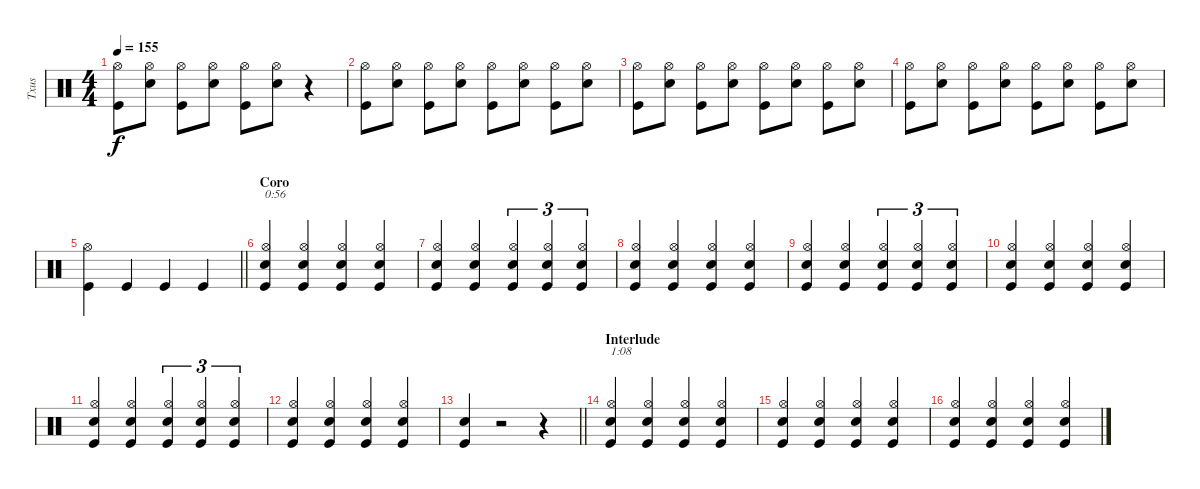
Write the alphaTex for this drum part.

\track ("Txus" "Txus") {instrument percussion}
\staff {score}
\articulation defaults
\ts (4 4)
\tempo 155
\clef neutral
\ks c
("Kick (hit)" "Hi-Hat (open)").8{dy f} ("Snare (hit) 2" "Hi-Hat (open)").8 ("Kick (hit)" "Hi-Hat (open)").8 ("Snare (hit) 2" "Hi-Hat (open)").8 ("Kick (hit)" "Hi-Hat (open)").8 ("Snare (hit) 2" "Hi-Hat (open)").8 r.4 |
("Kick (hit)" "Hi-Hat (open)").8 ("Snare (hit) 2" "Hi-Hat (open)").8 ("Kick (hit)" "Hi-Hat (open)").8 ("Snare (hit) 2" "Hi-Hat (open)").8 ("Kick (hit)" "Hi-Hat (open)").8 ("Snare (hit) 2" "Hi-Hat (open)").8 ("Kick (hit)" "Hi-Hat (open)").8 ("Snare (hit) 2" "Hi-Hat (open)").8 |
("Kick (hit)" "Hi-Hat (open)").8 ("Snare (hit) 2" "Hi-Hat (open)").8 ("Kick (hit)" "Hi-Hat (open)").8 ("Snare (hit) 2" "Hi-Hat (open)").8 ("Kick (hit)" "Hi-Hat (open)").8 ("Snare (hit) 2" "Hi-Hat (open)").8 ("Kick (hit)" "Hi-Hat (open)").8 ("Snare (hit) 2" "Hi-Hat (open)").8 |
("Kick (hit)" "Hi-Hat (open)").8 ("Snare (hit) 2" "Hi-Hat (open)").8 ("Kick (hit)" "Hi-Hat (open)").8 ("Snare (hit) 2" "Hi-Hat (open)").8 ("Kick (hit)" "Hi-Hat (open)").8 ("Snare (hit) 2" "Hi-Hat (open)").8 ("Kick (hit)" "Hi-Hat (open)").8 ("Snare (hit) 2" "Hi-Hat (open)").8 |
\barLineRight lightlight
("Kick (hit)" "Hi-Hat (open)").4 "Kick (hit)".4 "Kick (hit)".4 "Kick (hit)".4 |
\section ("" "Coro")
("Kick (hit)" "Snare (hit) 2" "Hi-Hat (open)").4{txt "0:56"} ("Kick (hit)" "Snare (hit) 2" "Hi-Hat (open)").4 ("Kick (hit)" "Snare (hit) 2" "Hi-Hat (open)").4 ("Kick (hit)" "Snare (hit) 2" "Hi-Hat (open)").4 |
("Kick (hit)" "Snare (hit) 2" "Hi-Hat (open)").4 ("Kick (hit)" "Snare (hit) 2" "Hi-Hat (open)").4 ("Kick (hit)" "Snare (hit) 2" "Hi-Hat (open)").4{tu (3 2)} ("Kick (hit)" "Snare (hit) 2" "Hi-Hat (open)").4{tu (3 2)} ("Kick (hit)" "Snare (hit) 2" "Hi-Hat (open)").4{tu (3 2)} |
("Kick (hit)" "Snare (hit) 2" "Hi-Hat (open)").4 ("Kick (hit)" "Snare (hit) 2" "Hi-Hat (open)").4 ("Kick (hit)" "Snare (hit) 2" "Hi-Hat (open)").4 ("Kick (hit)" "Snare (hit) 2" "Hi-Hat (open)").4 |
("Kick (hit)" "Snare (hit) 2" "Hi-Hat (open)").4 ("Kick (hit)" "Snare (hit) 2" "Hi-Hat (open)").4 ("Kick (hit)" "Snare (hit) 2" "Hi-Hat (open)").4{tu (3 2)} ("Kick (hit)" "Snare (hit) 2" "Hi-Hat (open)").4{tu (3 2)} ("Kick (hit)" "Snare (hit) 2" "Hi-Hat (open)").4{tu (3 2)} |
("Kick (hit)" "Snare (hit) 2" "Hi-Hat (open)").4 ("Kick (hit)" "Snare (hit) 2" "Hi-Hat (open)").4 ("Kick (hit)" "Snare (hit) 2" "Hi-Hat (open)").4 ("Kick (hit)" "Snare (hit) 2" "Hi-Hat (open)").4 |
("Kick (hit)" "Snare (hit) 2" "Hi-Hat (open)").4 ("Kick (hit)" "Snare (hit) 2" "Hi-Hat (open)").4 ("Kick (hit)" "Snare (hit) 2" "Hi-Hat (open)").4{tu (3 2)} ("Kick (hit)" "Snare (hit) 2" "Hi-Hat (open)").4{tu (3 2)} ("Kick (hit)" "Snare (hit) 2" "Hi-Hat (open)").4{tu (3 2)} |
("Kick (hit)" "Snare (hit) 2" "Hi-Hat (open)").4 ("Kick (hit)" "Snare (hit) 2" "Hi-Hat (open)").4 ("Kick (hit)" "Snare (hit) 2" "Hi-Hat (open)").4 ("Kick (hit)" "Snare (hit) 2" "Hi-Hat (open)").4 |
\barLineRight lightlight
("Kick (hit)" "Snare (hit) 2").4 r.2 r.4 |
\section ("" "Interlude")
("Kick (hit)" "Snare (hit) 2" "Hi-Hat (open)").4{txt "1:08"} ("Kick (hit)" "Snare (hit) 2" "Hi-Hat (open)").4 ("Kick (hit)" "Snare (hit) 2" "Hi-Hat (open)").4 ("Kick (hit)" "Snare (hit) 2" "Hi-Hat (open)").4 |
("Kick (hit)" "Snare (hit) 2" "Hi-Hat (open)").4 ("Kick (hit)" "Snare (hit) 2" "Hi-Hat (open)").4 ("Kick (hit)" "Snare (hit) 2" "Hi-Hat (open)").4 ("Kick (hit)" "Snare (hit) 2" "Hi-Hat (open)").4 |
("Kick (hit)" "Snare (hit) 2" "Hi-Hat (open)").4 ("Kick (hit)" "Snare (hit) 2" "Hi-Hat (open)").4 ("Kick (hit)" "Snare (hit) 2" "Hi-Hat (open)").4 ("Kick (hit)" "Snare (hit) 2" "Hi-Hat (open)").4
